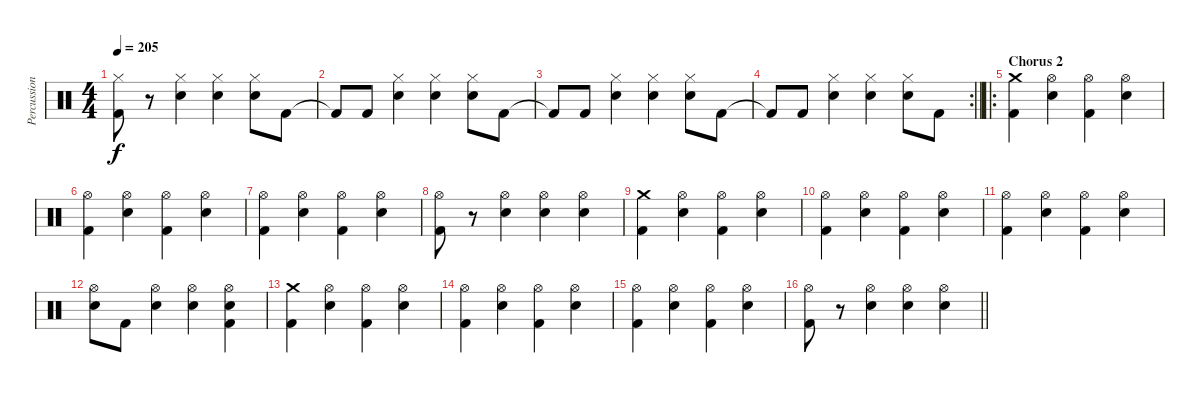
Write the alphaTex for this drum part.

\track ("Percussion" "Percussion") {instrument percussion}
\staff {score}
\articulation defaults
\ts (4 4)
\tempo 205
\clef neutral
\ks c
("Hi-Hat (closed)" "Kick (hit) 2").8{dy f} r.8 ("Hi-Hat (closed)" "Electric Snare (hit)").4 ("Hi-Hat (closed)" "Electric Snare (hit)").4 ("Hi-Hat (closed)" "Electric Snare (hit)").8 "Kick (hit) 2".8 |
"Kick (hit) 2"{t}.8 "Kick (hit) 2".8 ("Hi-Hat (closed)" "Electric Snare (hit)").4 ("Hi-Hat (closed)" "Electric Snare (hit)").4 ("Hi-Hat (closed)" "Electric Snare (hit)").8 "Kick (hit) 2".8 |
"Kick (hit) 2"{t}.8 "Kick (hit) 2".8 ("Hi-Hat (closed)" "Electric Snare (hit)").4 ("Hi-Hat (closed)" "Electric Snare (hit)").4 ("Hi-Hat (closed)" "Electric Snare (hit)").8 "Kick (hit) 2".8 |
\rc 2
\barLineRight lightlight "Kick (hit) 2"{t}.8 "Kick (hit) 2".8
("Hi-Hat (closed)" "Electric Snare (hit)").4 ("Hi-Hat (closed)" "Electric Snare (hit)").4 ("Hi-Hat (closed)" "Electric Snare (hit)").8 "Kick (hit) 2".8 |
\ro
\section ("" "Chorus 2")
("Crash medium (hit)" "Kick (hit) 2").4 ("Hi-Hat (open)" "Electric Snare (hit)").4 ("Hi-Hat (open)" "Kick (hit) 2").4 ("Hi-Hat (open)" "Electric Snare (hit)").4 |
("Hi-Hat (open)" "Kick (hit) 2").4 ("Hi-Hat (open)" "Electric Snare (hit)").4 ("Hi-Hat (open)" "Kick (hit) 2").4 ("Hi-Hat (open)" "Electric Snare (hit)").4 |
("Hi-Hat (open)" "Kick (hit) 2").4 ("Hi-Hat (open)" "Electric Snare (hit)").4 ("Hi-Hat (open)" "Kick (hit) 2").4 ("Hi-Hat (open)" "Electric Snare (hit)").4 |
("Hi-Hat (open)" "Kick (hit) 2").8 r.8 ("Hi-Hat (open)" "Electric Snare (hit)").4 ("Hi-Hat (open)" "Electric Snare (hit)").4 ("Hi-Hat (open)" "Electric Snare (hit)").4 |
("Crash medium (hit)" "Kick (hit) 2").4 ("Hi-Hat (open)" "Electric Snare (hit)").4 ("Hi-Hat (open)" "Kick (hit) 2").4 ("Hi-Hat (open)" "Electric Snare (hit)").4 |
("Hi-Hat (open)" "Kick (hit) 2").4 ("Hi-Hat (open)" "Electric Snare (hit)").4 ("Hi-Hat (open)" "Kick (hit) 2").4 ("Hi-Hat (open)" "Electric Snare (hit)").4 |
("Hi-Hat (open)" "Kick (hit) 2").4 ("Hi-Hat (open)" "Electric Snare (hit)").4 ("Hi-Hat (open)" "Kick (hit) 2").4 ("Hi-Hat (open)" "Electric Snare (hit)").4 |
("Hi-Hat (open)" "Electric Snare (hit)").8 "Kick (hit) 2".8 ("Hi-Hat (open)" "Electric Snare (hit)").4 ("Hi-Hat (open)" "Electric Snare (hit)").4 ("Hi-Hat (open)" "Electric Snare (hit)" "Kick (hit) 2").4 |
("Crash medium (hit)" "Kick (hit) 2").4 ("Hi-Hat (open)" "Electric Snare (hit)").4 ("Hi-Hat (open)" "Kick (hit) 2").4 ("Hi-Hat (open)" "Electric Snare (hit)").4 |
("Hi-Hat (open)" "Kick (hit) 2").4 ("Hi-Hat (open)" "Electric Snare (hit)").4 ("Hi-Hat (open)" "Kick (hit) 2").4 ("Hi-Hat (open)" "Electric Snare (hit)").4 |
("Hi-Hat (open)" "Kick (hit) 2").4 ("Hi-Hat (open)" "Electric Snare (hit)").4 ("Hi-Hat (open)" "Kick (hit) 2").4 ("Hi-Hat (open)" "Electric Snare (hit)").4 |
\barLineRight lightlight
("Hi-Hat (open)" "Kick (hit) 2").8 r.8 ("Hi-Hat (open)" "Electric Snare (hit)").4 ("Hi-Hat (open)" "Electric Snare (hit)").4 ("Hi-Hat (open)" "Electric Snare (hit)").4
